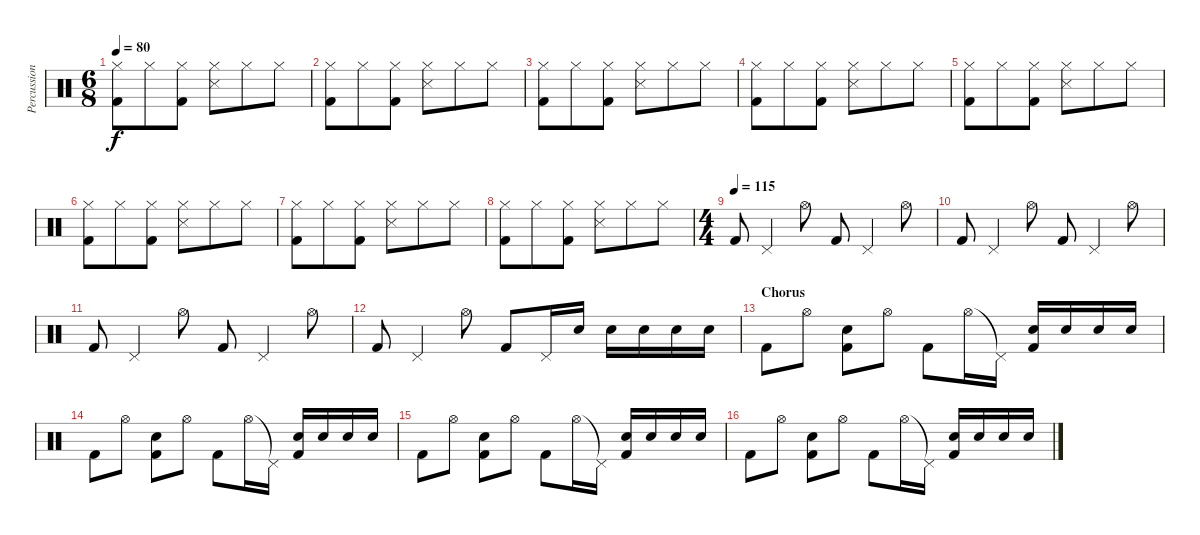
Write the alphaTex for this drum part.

\track ("Percussion" "Percussion") {instrument percussion}
\staff {score}
\articulation defaults
\ts (6 8)
\tempo 80
\clef neutral
\ks c
("Hi-Hat (closed)" "Kick (hit) 2").8{dy f} "Hi-Hat (closed)".8 ("Hi-Hat (closed)" "Kick (hit) 2").8 ("Hi-Hat (closed)" "Snare (side stick) 3").8 "Hi-Hat (closed)".8 "Hi-Hat (closed)".8 |
("Hi-Hat (closed)" "Kick (hit) 2").8 "Hi-Hat (closed)".8 ("Hi-Hat (closed)" "Kick (hit) 2").8 ("Hi-Hat (closed)" "Snare (side stick) 3").8 "Hi-Hat (closed)".8 "Hi-Hat (closed)".8 |
("Hi-Hat (closed)" "Kick (hit) 2").8 "Hi-Hat (closed)".8 ("Hi-Hat (closed)" "Kick (hit) 2").8 ("Hi-Hat (closed)" "Snare (side stick) 3").8 "Hi-Hat (closed)".8 "Hi-Hat (closed)".8 |
("Hi-Hat (closed)" "Kick (hit) 2").8 "Hi-Hat (closed)".8 ("Hi-Hat (closed)" "Kick (hit) 2").8 ("Hi-Hat (closed)" "Snare (side stick) 3").8 "Hi-Hat (closed)".8 "Hi-Hat (closed)".8 |
("Hi-Hat (closed)" "Kick (hit) 2").8 "Hi-Hat (closed)".8 ("Hi-Hat (closed)" "Kick (hit) 2").8 ("Hi-Hat (closed)" "Snare (side stick) 3").8 "Hi-Hat (closed)".8 "Hi-Hat (closed)".8 |
("Hi-Hat (closed)" "Kick (hit) 2").8 "Hi-Hat (closed)".8 ("Hi-Hat (closed)" "Kick (hit) 2").8 ("Hi-Hat (closed)" "Snare (side stick) 3").8 "Hi-Hat (closed)".8 "Hi-Hat (closed)".8 |
("Hi-Hat (closed)" "Kick (hit) 2").8 "Hi-Hat (closed)".8 ("Hi-Hat (closed)" "Kick (hit) 2").8 ("Hi-Hat (closed)" "Snare (side stick) 3").8 "Hi-Hat (closed)".8 "Hi-Hat (closed)".8 |
("Hi-Hat (closed)" "Kick (hit) 2").8 "Hi-Hat (closed)".8 ("Hi-Hat (closed)" "Kick (hit) 2").8 ("Hi-Hat (closed)" "Snare (side stick) 3").8 "Hi-Hat (closed)".8 "Hi-Hat (closed)".8 |
\ts (4 4)
\tempo (115)
"Kick (hit) 2".8 "Pedal Hi-Hat (hit)".4 "Hi-Hat (open)".8 "Kick (hit) 2".8 "Pedal Hi-Hat (hit)".4 "Hi-Hat (open)".8 |
"Kick (hit) 2".8 "Pedal Hi-Hat (hit)".4 "Hi-Hat (open)".8 "Kick (hit) 2".8 "Pedal Hi-Hat (hit)".4 "Hi-Hat (open)".8 |
"Kick (hit) 2".8 "Pedal Hi-Hat (hit)".4 "Hi-Hat (open)".8 "Kick (hit) 2".8 "Pedal Hi-Hat (hit)".4 "Hi-Hat (open)".8 |
"Kick (hit) 2".8 "Pedal Hi-Hat (hit)".4 "Hi-Hat (open)".8 "Kick (hit) 2".8 "Pedal Hi-Hat (hit)".16 "Snare (hit) 2".16 "Snare (hit) 2".16 "Snare (hit) 2".16 "Snare (hit) 2".16 "Snare (hit) 2".16 |
\section ("" "Chorus")
"Kick (hit) 2".8 "Hi-Hat (open)".8 ("Electric Snare (hit)" "Kick (hit) 2").8 "Hi-Hat (open)".8 "Kick (hit) 2".8 "Hi-Hat (open)".16 "Pedal Hi-Hat (hit)"{t}.16 ("Electric Snare (hit)" "Kick (hit) 2").16 "Electric Snare (hit)".16 "Electric Snare (hit)".16 "Electric Snare (hit)".16 |
"Kick (hit) 2".8 "Hi-Hat (open)".8 ("Electric Snare (hit)" "Kick (hit) 2").8 "Hi-Hat (open)".8 "Kick (hit) 2".8 "Hi-Hat (open)".16 "Pedal Hi-Hat (hit)"{t}.16 ("Electric Snare (hit)" "Kick (hit) 2").16 "Electric Snare (hit)".16 "Electric Snare (hit)".16 "Electric Snare (hit)".16 |
"Kick (hit) 2".8 "Hi-Hat (open)".8 ("Electric Snare (hit)" "Kick (hit) 2").8 "Hi-Hat (open)".8 "Kick (hit) 2".8 "Hi-Hat (open)".16 "Pedal Hi-Hat (hit)"{t}.16 ("Electric Snare (hit)" "Kick (hit) 2").16 "Electric Snare (hit)".16 "Electric Snare (hit)".16 "Electric Snare (hit)".16 |
"Kick (hit) 2".8 "Hi-Hat (open)".8 ("Electric Snare (hit)" "Kick (hit) 2").8 "Hi-Hat (open)".8 "Kick (hit) 2".8 "Hi-Hat (open)".16 "Pedal Hi-Hat (hit)"{t}.16 ("Electric Snare (hit)" "Kick (hit) 2").16 "Electric Snare (hit)".16 "Electric Snare (hit)".16 "Electric Snare (hit)".16
